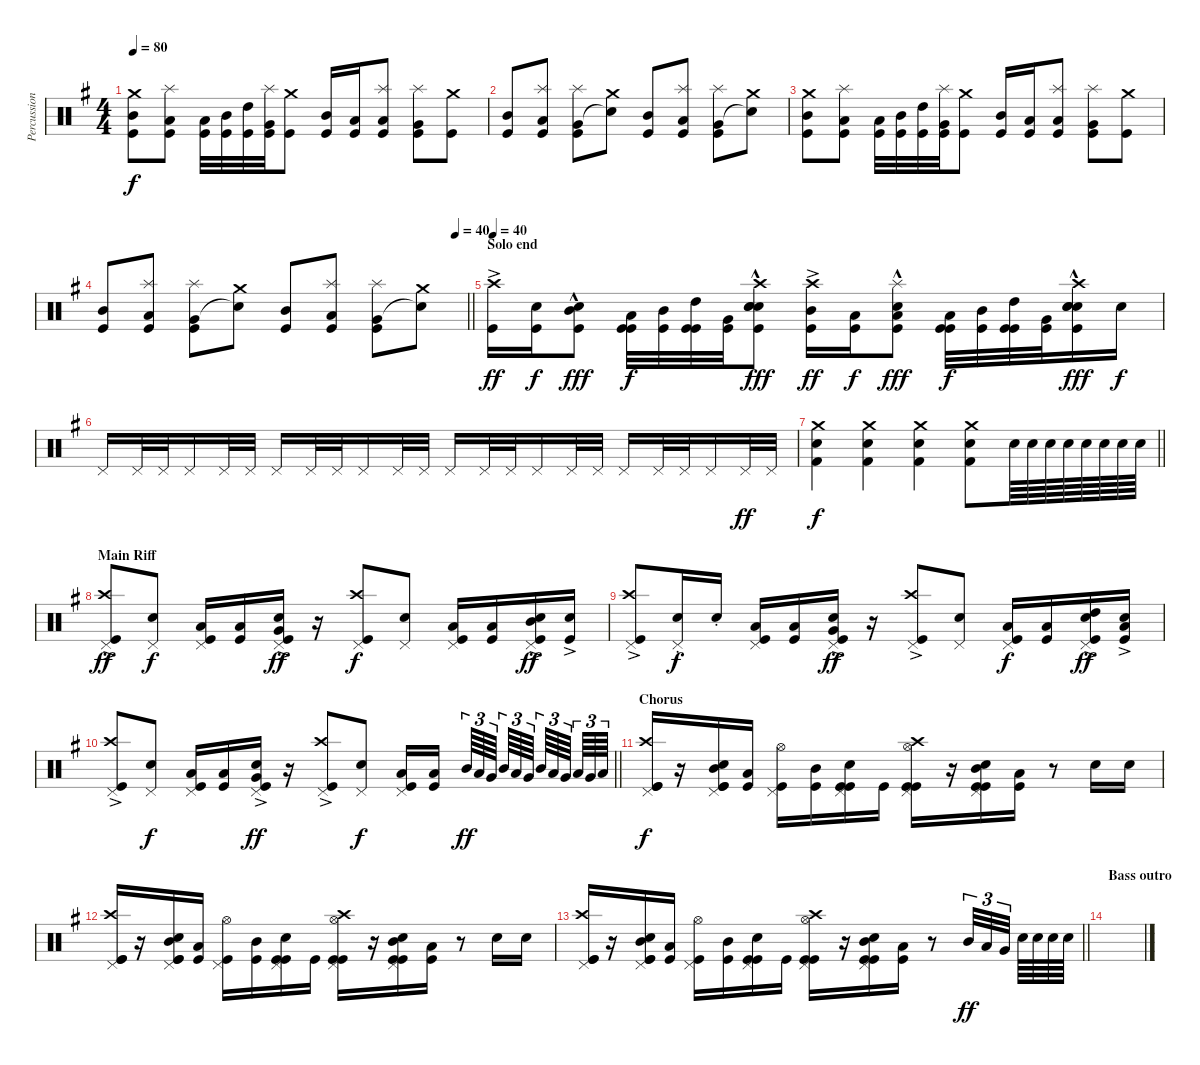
\track ("Percussion" "Percussion") {instrument percussion}
\staff {score}
\articulation defaults
\ts (4 4)
\tempo 80
\clef neutral
\ks eminor
("Crash medium (hit)" "Mid Tom (hit)" "Kick (hit)").8{dy f} ("Splash (hit)" "Low Tom (hit)" "Kick (hit)").8 ("Low Tom (hit)" "Kick (hit)").32 ("Mid Tom (hit)" "Kick (hit)").32 ("High Tom (hit)" "Kick (hit)").32 ("Splash (hit)" "Very Low Tom (hit)" "Kick (hit)").32 ("Crash medium (hit)" "Kick (hit)").8 ("Mid Tom (hit)" "Kick (hit)").16 ("Low Tom (hit)" "Kick (hit)").16 ("Splash (hit)" "Low Tom (hit)" "Kick (hit)").8 ("Splash (hit)" "Very Low Tom (hit)" "Kick (hit)").8 ("Crash medium (hit)" "Kick (hit)").8 |
("Mid Tom (hit)" "Kick (hit)").8 ("Splash (hit)" "Low Tom (hit)" "Kick (hit)").8 ("Splash (hit)" "Very Low Tom (hit)" "Kick (hit)").8 ("Crash medium (hit)" "Snare (hit)"{t}).8 ("Mid Tom (hit)" "Kick (hit)").8 ("Splash (hit)" "Low Tom (hit)" "Kick (hit)").8 ("Splash (hit)" "Very Low Tom (hit)" "Kick (hit)").8 ("Crash medium (hit)" "Snare (hit)"{t}).8 |
("Crash medium (hit)" "Mid Tom (hit)" "Kick (hit)").8 ("Splash (hit)" "Low Tom (hit)" "Kick (hit)").8 ("Low Tom (hit)" "Kick (hit)").32 ("Mid Tom (hit)" "Kick (hit)").32 ("High Tom (hit)" "Kick (hit)").32 ("Splash (hit)" "Very Low Tom (hit)" "Kick (hit)").32 ("Crash medium (hit)" "Kick (hit)").8 ("Mid Tom (hit)" "Kick (hit)").16 ("Low Tom (hit)" "Kick (hit)").16 ("Splash (hit)" "Low Tom (hit)" "Kick (hit)").8 ("Splash (hit)" "Very Low Tom (hit)" "Kick (hit)").8 ("Crash medium (hit)" "Kick (hit)").8 |
\tempo (40 0.96875)
\barLineRight lightlight
("Mid Tom (hit)" "Kick (hit)").8 ("Splash (hit)" "Low Tom (hit)" "Kick (hit)").8 ("Splash (hit)" "Very Low Tom (hit)" "Kick (hit)").8 ("Crash medium (hit)" "Snare (hit)"{t}).8 ("Mid Tom (hit)" "Kick (hit)").8 ("Splash (hit)" "Low Tom (hit)" "Kick (hit)").8 ("Splash (hit)" "Very Low Tom (hit)" "Kick (hit)").8 ("Crash medium (hit)" "Snare (hit)"{t}).8 |
\section ("" "Solo end")
\tempo 40
("Crash high (hit)"{ac} "Kick (hit)"{ac}).16{dy ff} ("Snare (hit) 2" "Kick (hit)").16{dy f} ("Mid Tom (hit)"{hac} "Snare (hit) 2"{hac} "Kick (hit)"{hac}).8{dy fff} ("Low Tom (hit)" "Kick (hit)" "Kick (hit)").32{dy f} ("Mid Tom (hit)" "Kick (hit)").32 ("High Tom (hit)" "Kick (hit)" "Kick (hit)").32 ("Very Low Tom (hit)" "Kick (hit)").32 ("Crash high (hit)"{hac} "Snare (hit) 2"{hac} "Snare (hit) 2"{hac} "Snare (hit) 2"{hac} "Kick (hit)"{hac}).8{dy fff} ("Crash high (hit)"{ac} "Mid Tom (hit)"{ac} "Kick (hit)"{ac}).16{dy ff} ("Low Tom (hit)" "Kick (hit)").16{dy f} ("Snare (hit) 2"{hac} "Splash (hit)"{hac} "Low Tom (hit)"{hac} "Kick (hit)"{hac}).8{dy fff} ("Low Tom (hit)" "Kick (hit)" "Kick (hit)").32{dy f} ("Mid Tom (hit)" "Kick (hit)").32 ("High Tom (hit)" "Kick (hit)" "Kick (hit)").32 ("Very Low Tom (hit)" "Kick (hit)").32 ("Crash high (hit)"{hac} "Snare (hit) 2"{hac} "Snare (hit) 2"{hac} "Snare (hit) 2"{hac} "Kick (hit)"{hac}).16{dy fff} "Snare (hit) 2".16{dy f} |
"Pedal Hi-Hat (hit)".16 "Pedal Hi-Hat (hit)".32 "Pedal Hi-Hat (hit)".32 "Pedal Hi-Hat (hit)".16 "Pedal Hi-Hat (hit)".32 "Pedal Hi-Hat (hit)".32 "Pedal Hi-Hat (hit)".16 "Pedal Hi-Hat (hit)".32 "Pedal Hi-Hat (hit)".32 "Pedal Hi-Hat (hit)".16 "Pedal Hi-Hat (hit)".32 "Pedal Hi-Hat (hit)".32 "Pedal Hi-Hat (hit)".16 "Pedal Hi-Hat (hit)".32 "Pedal Hi-Hat (hit)".32 "Pedal Hi-Hat (hit)".16 "Pedal Hi-Hat (hit)".32 "Pedal Hi-Hat (hit)".32 "Pedal Hi-Hat (hit)".16 "Pedal Hi-Hat (hit)".32 "Pedal Hi-Hat (hit)".32 "Pedal Hi-Hat (hit)".16 "Pedal Hi-Hat (hit)".32{dy ff} "Pedal Hi-Hat (hit)".32 |
\barLineRight lightlight
("Kick (hit) 2" "Crash medium (hit)" "Snare (hit) 2").4{dy f} ("Kick (hit) 2" "Crash medium (hit)" "Snare (hit) 2").4 ("Kick (hit) 2" "Crash medium (hit)" "Snare (hit) 2").4 ("Kick (hit) 2" "Crash medium (hit)" "Snare (hit) 2").8 "Snare (hit) 2".64 "Snare (hit) 2".64 "Snare (hit) 2".64 "Snare (hit) 2".64 "Snare (hit) 2".64 "Snare (hit) 2".64 "Snare (hit) 2".64 "Snare (hit) 2".64 |
\section ("" "Main Riff")
("Pedal Hi-Hat (hit)"{ac} "Crash high (hit)"{ac} "Kick (hit)"{ac}).8{dy ff} ("Pedal Hi-Hat (hit)" "Snare (hit) 2").8{dy f} ("Pedal Hi-Hat (hit)" "Low Floor Tom (hit)" "Kick (hit)").16 ("Low Floor Tom (hit)" "Kick (hit)").16 ("Pedal Hi-Hat (hit)"{ac} "Snare (hit) 2"{ac} "Very Low Tom (hit)"{ac} "Kick (hit)"{ac}).16{dy ff} r.16 ("Pedal Hi-Hat (hit)" "Crash high (hit)" "Kick (hit)").8{dy f} ("Pedal Hi-Hat (hit)" "Snare (hit) 2").8 ("Pedal Hi-Hat (hit)" "Low Floor Tom (hit)" "Kick (hit)").16 ("Low Tom (hit)" "Kick (hit)").16 ("Pedal Hi-Hat (hit)"{ac} "Snare (hit) 2"{ac} "Mid Tom (hit)"{ac} "Kick (hit)"{ac}).16{dy ff} ("Snare (hit) 2"{ac} "Kick (hit)"{ac}).16 |
("Pedal Hi-Hat (hit)"{ac} "Crash high (hit)" "Kick (hit)"{ac}).8 ("Pedal Hi-Hat (hit)"{st} "Snare (hit) 2"{st}).16{dy f} "Snare (hit) 2"{st}.16 ("Pedal Hi-Hat (hit)" "Low Tom (hit)" "Kick (hit)").16 ("Low Floor Tom (hit)" "Kick (hit)").16 ("Pedal Hi-Hat (hit)"{ac} "Snare (hit) 2"{ac} "Very Low Tom (hit)"{ac} "Kick (hit)"{ac}).16{dy ff} r.16 ("Pedal Hi-Hat (hit)"{ac} "Crash high (hit)"{ac} "Kick (hit)"{ac}).8 ("Pedal Hi-Hat (hit)" "Snare (hit) 2").8 ("Pedal Hi-Hat (hit)" "Low Floor Tom (hit)" "Kick (hit)").16{dy f} ("Low Tom (hit)" "Kick (hit)").16 ("Pedal Hi-Hat (hit)"{ac} "Snare (hit) 2"{ac} "High Tom (hit)"{ac} "Kick (hit)"{ac}).16{dy ff} ("Snare (hit) 2"{ac} "Low Tom (hit)"{ac} "Kick (hit)"{ac}).16 |
\barLineRight lightlight
("Pedal Hi-Hat (hit)"{ac} "Crash high (hit)"{ac} "Kick (hit)"{ac}).8 ("Pedal Hi-Hat (hit)" "Snare (hit) 2").8{dy f} ("Pedal Hi-Hat (hit)" "Low Floor Tom (hit)" "Kick (hit)").16 ("Low Floor Tom (hit)" "Kick (hit)").16 ("Pedal Hi-Hat (hit)"{ac} "Snare (hit) 2"{ac} "Very Low Tom (hit)"{ac} "Kick (hit)"{ac}).16{dy ff} r.16 ("Pedal Hi-Hat (hit)"{ac} "Crash high (hit)"{ac} "Kick (hit)"{ac}).8 ("Pedal Hi-Hat (hit)" "Snare (hit) 2").8{dy f} ("Pedal Hi-Hat (hit)" "Low Floor Tom (hit)" "Kick (hit)").16 ("Low Tom (hit)" "Kick (hit)").16{beam splitsecondary} "Mid Tom (hit)".64{tu (3 2) dy ff} "Low Tom (hit)".64{tu (3 2)} "Very Low Tom (hit)".64{tu (3 2) beam splitsecondary} "Mid Tom (hit)".64{tu (3 2)} "Low Tom (hit)".64{tu (3 2)} "Very Low Tom (hit)".64{tu (3 2) beam splitsecondary} "Mid Tom (hit)".64{tu (3 2)} "Low Tom (hit)".64{tu (3 2)} "Very Low Tom (hit)".64{tu (3 2) beam splitsecondary} "Low Tom (hit)".64{tu (3 2)} "Very Low Tom (hit)".64{tu (3 2)} "Low Floor Tom (hit)".64{tu (3 2)} |
\section ("" "Chorus")
("Pedal Hi-Hat (hit)" "Crash high (hit)" "Kick (hit)" "Kick (hit)").16{dy f} r.16 ("Pedal Hi-Hat (hit)" "Snare (hit) 2" "Mid Tom (hit)" "Kick (hit)" "Kick (hit)").16 ("Low Tom (hit)" "Kick (hit)").16 ("Pedal Hi-Hat (hit)" "Hi-Hat (open)" "Kick (hit)").16 ("Mid Tom (hit)" "Kick (hit)").16 ("Pedal Hi-Hat (hit)" "Snare (hit) 2" "Kick (hit)" "Kick (hit)").16 "Kick (hit)".16 ("Pedal Hi-Hat (hit)" "Crash high (hit)" "Hi-Hat (open)" "Kick (hit)" "Kick (hit)").16 r.16 ("Pedal Hi-Hat (hit)" "Snare (hit) 2" "Mid Tom (hit)" "Kick (hit)" "Kick (hit)").16 ("Low Tom (hit)" "Kick (hit)").16 r.8 "Snare (hit) 2".16 "Snare (hit) 2".16 |
("Pedal Hi-Hat (hit)" "Crash high (hit)" "Kick (hit)" "Kick (hit)").16 r.16 ("Pedal Hi-Hat (hit)" "Snare (hit) 2" "Mid Tom (hit)" "Kick (hit)" "Kick (hit)").16 ("Low Tom (hit)" "Kick (hit)").16 ("Pedal Hi-Hat (hit)" "Hi-Hat (open)" "Kick (hit)").16 ("Mid Tom (hit)" "Kick (hit)").16 ("Pedal Hi-Hat (hit)" "Snare (hit) 2" "Kick (hit)" "Kick (hit)").16 "Kick (hit)".16 ("Pedal Hi-Hat (hit)" "Crash high (hit)" "Hi-Hat (open)" "Kick (hit)" "Kick (hit)").16 r.16 ("Pedal Hi-Hat (hit)" "Snare (hit) 2" "Mid Tom (hit)" "Kick (hit)" "Kick (hit)").16 ("Low Tom (hit)" "Kick (hit)").16 r.8 "Snare (hit) 2".16 "Snare (hit) 2".16 |
\barLineRight lightlight
("Pedal Hi-Hat (hit)" "Crash high (hit)" "Kick (hit)" "Kick (hit)").16 r.16 ("Pedal Hi-Hat (hit)" "Snare (hit) 2" "Mid Tom (hit)" "Kick (hit)" "Kick (hit)").16 ("Low Tom (hit)" "Kick (hit)").16 ("Pedal Hi-Hat (hit)" "Hi-Hat (open)" "Kick (hit)").16 ("Mid Tom (hit)" "Kick (hit)").16 ("Pedal Hi-Hat (hit)" "Snare (hit) 2" "Kick (hit)" "Kick (hit)").16 "Kick (hit)".16 ("Pedal Hi-Hat (hit)" "Crash high (hit)" "Hi-Hat (open)" "Kick (hit)" "Kick (hit)").16 r.16 ("Pedal Hi-Hat (hit)" "Snare (hit) 2" "Mid Tom (hit)" "Kick (hit)" "Kick (hit)").16 ("Low Tom (hit)" "Kick (hit)").16 r.8 "Mid Tom (hit)".32{tu (3 2) dy ff} "Low Tom (hit)".32{tu (3 2)} "Very Low Tom (hit)".32{tu (3 2) beam splitsecondary} "Snare (hit) 2".64 "Snare (hit) 2".64 "Snare (hit) 2".64 "Snare (hit) 2".64 |
\section ("" "Bass outro")
